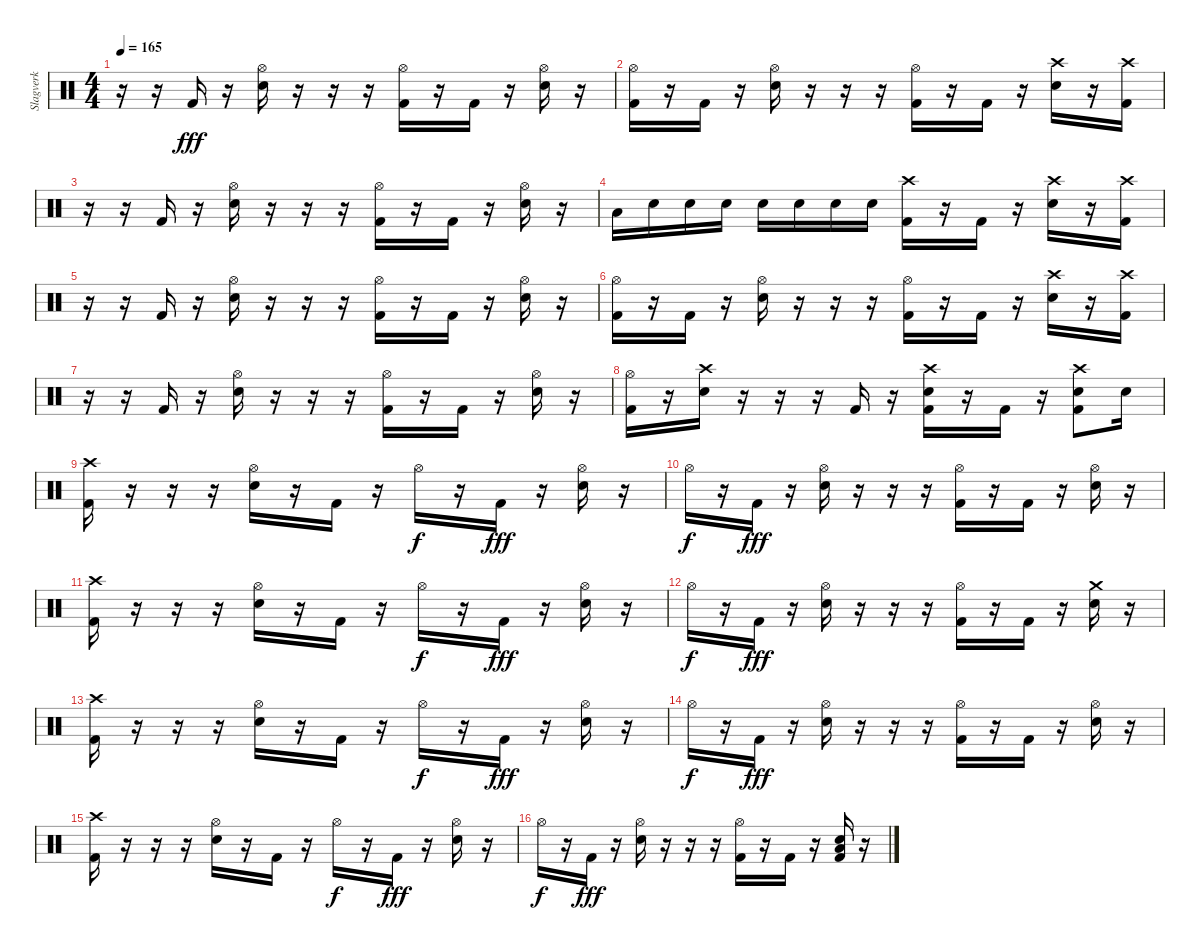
\track ("Slagverk" "Slagverk") {instrument percussion}
\staff {score}
\articulation defaults
\ts (4 4)
\tempo 165
\clef neutral
\ks c
r.16{dy fff} r.16 "Kick (hit) 2".16 r.16 ("Hi-Hat (open)" "Electric Snare (hit)").16 r.16 r.16 r.16 ("Hi-Hat (open)" "Kick (hit) 2").16 r.16 "Kick (hit) 2".16 r.16 ("Hi-Hat (open)" "Electric Snare (hit)").16 r.16 |
("Hi-Hat (open)" "Kick (hit) 2").16 r.16 "Kick (hit) 2".16 r.16 ("Hi-Hat (open)" "Electric Snare (hit)").16 r.16 r.16 r.16 ("Hi-Hat (open)" "Kick (hit) 2").16 r.16 "Kick (hit) 2".16 r.16 ("Crash high (hit)" "Electric Snare (hit)").16 r.16 ("Crash high (hit)" "Kick (hit) 2").16 |
r.16 r.16 "Kick (hit) 2".16 r.16 ("Hi-Hat (open)" "Electric Snare (hit)").16 r.16 r.16 r.16 ("Hi-Hat (open)" "Kick (hit) 2").16 r.16 "Kick (hit) 2".16 r.16 ("Hi-Hat (open)" "Electric Snare (hit)").16 r.16 |
"Low Tom (hit)".16 "Electric Snare (hit)".16 "Electric Snare (hit)".16 "Electric Snare (hit)".16 "Electric Snare (hit)".16 "Electric Snare (hit)".16 "Electric Snare (hit)".16 "Electric Snare (hit)".16 ("Crash high (hit)" "Kick (hit) 2").16 r.16 "Kick (hit) 2".16 r.16 ("Crash high (hit)" "Electric Snare (hit)").16 r.16 ("Crash high (hit)" "Kick (hit) 2").16 |
r.16 r.16 "Kick (hit) 2".16 r.16 ("Hi-Hat (open)" "Electric Snare (hit)").16 r.16 r.16 r.16 ("Hi-Hat (open)" "Kick (hit) 2").16 r.16 "Kick (hit) 2".16 r.16 ("Hi-Hat (open)" "Electric Snare (hit)").16 r.16 |
("Hi-Hat (open)" "Kick (hit) 2").16 r.16 "Kick (hit) 2".16 r.16 ("Hi-Hat (open)" "Electric Snare (hit)").16 r.16 r.16 r.16 ("Hi-Hat (open)" "Kick (hit) 2").16 r.16 "Kick (hit) 2".16 r.16 ("Crash high (hit)" "Electric Snare (hit)").16 r.16 ("Crash high (hit)" "Kick (hit) 2").16 |
r.16 r.16 "Kick (hit) 2".16 r.16 ("Hi-Hat (open)" "Electric Snare (hit)").16 r.16 r.16 r.16 ("Hi-Hat (open)" "Kick (hit) 2").16 r.16 "Kick (hit) 2".16 r.16 ("Hi-Hat (open)" "Electric Snare (hit)").16 r.16 |
("Hi-Hat (open)" "Kick (hit) 2").16 r.16 ("Crash high (hit)" "Electric Snare (hit)").16 r.16 r.16 r.16 "Kick (hit) 2".16 r.16 ("Crash high (hit)" "Electric Snare (hit)" "Kick (hit) 2").16 r.16 "Kick (hit) 2".16 r.16 ("Crash high (hit)" "Electric Snare (hit)" "Kick (hit) 2").8 "Electric Snare (hit)".16 |
("Crash high (hit)" "Kick (hit) 2").16 r.16 r.16 r.16 ("Hi-Hat (open)" "Electric Snare (hit)").16 r.16 "Kick (hit) 2".16 r.16 "Hi-Hat (open)".16{dy f} r.16 "Kick (hit) 2".16{dy fff} r.16 ("Hi-Hat (open)" "Electric Snare (hit)").16 r.16 |
"Hi-Hat (open)".16{dy f} r.16 "Kick (hit) 2".16{dy fff} r.16 ("Hi-Hat (open)" "Electric Snare (hit)").16 r.16 r.16 r.16 ("Hi-Hat (open)" "Kick (hit) 2").16 r.16 "Kick (hit) 2".16 r.16 ("Hi-Hat (open)" "Electric Snare (hit)").16 r.16 |
("Crash high (hit)" "Kick (hit) 2").16 r.16 r.16 r.16 ("Hi-Hat (open)" "Electric Snare (hit)").16 r.16 "Kick (hit) 2".16 r.16 "Hi-Hat (open)".16{dy f} r.16 "Kick (hit) 2".16{dy fff} r.16 ("Hi-Hat (open)" "Electric Snare (hit)").16 r.16 |
"Hi-Hat (open)".16{dy f} r.16 "Kick (hit) 2".16{dy fff} r.16 ("Hi-Hat (open)" "Electric Snare (hit)").16 r.16 r.16 r.16 ("Hi-Hat (open)" "Kick (hit) 2").16 r.16 "Kick (hit) 2".16 r.16 ("Crash medium (hit)" "Electric Snare (hit)").16 r.16 |
("Crash high (hit)" "Kick (hit) 2").16 r.16 r.16 r.16 ("Hi-Hat (open)" "Electric Snare (hit)").16 r.16 "Kick (hit) 2".16 r.16 "Hi-Hat (open)".16{dy f} r.16 "Kick (hit) 2".16{dy fff} r.16 ("Hi-Hat (open)" "Electric Snare (hit)").16 r.16 |
"Hi-Hat (open)".16{dy f} r.16 "Kick (hit) 2".16{dy fff} r.16 ("Hi-Hat (open)" "Electric Snare (hit)").16 r.16 r.16 r.16 ("Hi-Hat (open)" "Kick (hit) 2").16 r.16 "Kick (hit) 2".16 r.16 ("Hi-Hat (open)" "Electric Snare (hit)").16 r.16 |
("Crash high (hit)" "Kick (hit) 2").16 r.16 r.16 r.16 ("Hi-Hat (open)" "Electric Snare (hit)").16 r.16 "Kick (hit) 2".16 r.16 "Hi-Hat (open)".16{dy f} r.16 "Kick (hit) 2".16{dy fff} r.16 ("Hi-Hat (open)" "Electric Snare (hit)").16 r.16 |
"Hi-Hat (open)".16{dy f} r.16 "Kick (hit) 2".16{dy fff} r.16 ("Hi-Hat (open)" "Electric Snare (hit)").16 r.16 r.16 r.16 ("Hi-Hat (open)" "Kick (hit) 2").16 r.16 "Kick (hit) 2".16 r.16 ("Low Floor Tom (hit)" "Electric Snare (hit)" "Kick (hit) 2").16 r.16
